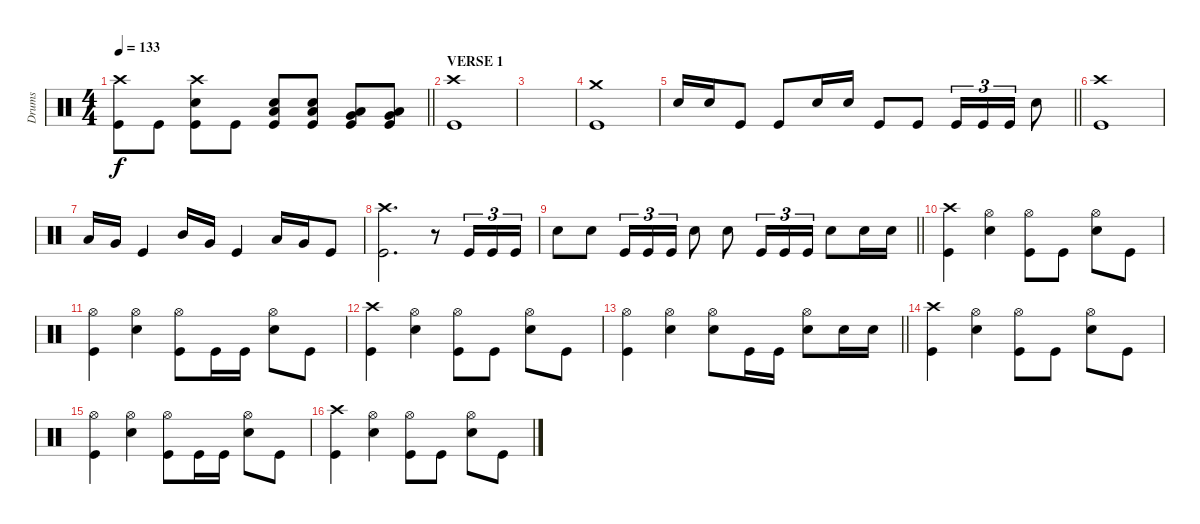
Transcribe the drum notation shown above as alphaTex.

\track ("Drums" "Drums") {instrument percussion}
\staff
\articulation defaults
\ts (4 4)
\tempo 133
\clef neutral
\barLineRight lightlight
\ks c
("Crash high (hit)" "Kick (hit)").8{dy f} "Kick (hit)".8 ("Crash high (hit)" "Electric Snare (hit)" "Kick (hit)").8 "Kick (hit)".8 ("Low Floor Tom (hit)" "Electric Snare (hit)" "Kick (hit)").8 ("Low Floor Tom (hit)" "Electric Snare (hit)" "Kick (hit)").8 ("Very Low Tom (hit)" "Low Floor Tom (hit)" "Kick (hit)").8 ("Very Low Tom (hit)" "Low Floor Tom (hit)" "Kick (hit)").8 |
\section ("" "VERSE 1")
("Crash high (hit)" "Kick (hit)").1 |
|
("Crash medium (hit)" "Kick (hit)").1 |
\barLineRight lightlight "Electric Snare (hit)".16 "Electric Snare (hit)".16 "Kick (hit)".8 "Kick (hit)".8 "Electric Snare (hit)".16 "Electric Snare (hit)".16 "Kick (hit)".8 "Kick (hit)".8 "Kick (hit)".16{tu (3 2)} "Kick (hit)".16{tu (3 2)} "Kick (hit)".16{tu (3 2)} "Electric Snare (hit)".8
|
("Crash high (hit)" "Kick (hit)").1 |
"Low Tom (hit)".16 "Very Low Tom (hit)".16 "Kick (hit)".4 "Mid Tom (hit)".16 "Very Low Tom (hit)".16 "Kick (hit)".4 "Low Tom (hit)".16 "Very Low Tom (hit)".16 "Kick (hit)".8 |
("Crash high (hit)" "Kick (hit)").2{d} r.8 "Kick (hit)".16{tu (3 2)} "Kick (hit)".16{tu (3 2)} "Kick (hit)".16{tu (3 2)} |
\barLineRight lightlight "Electric Snare (hit)".8 "Electric Snare (hit)".8 "Kick (hit)".16{tu (3 2)} "Kick (hit)".16{tu (3 2)} "Kick (hit)".16{tu (3 2)} "Electric Snare (hit)".8 "Electric Snare (hit)".8 "Kick (hit)".16{tu (3 2)} "Kick (hit)".16{tu (3 2)} "Kick (hit)".16{tu (3 2)} "Electric Snare (hit)".8 "Electric Snare (hit)".16 "Electric Snare (hit)".16
|
\section ("" "")
("Crash high (hit)" "Kick (hit)").4 ("Hi-Hat (open)" "Electric Snare (hit)").4 ("Hi-Hat (open)" "Kick (hit)").8 "Kick (hit)".8 ("Hi-Hat (open)" "Electric Snare (hit)").8 "Kick (hit)".8 |
("Hi-Hat (open)" "Kick (hit)").4 ("Hi-Hat (open)" "Electric Snare (hit)").4 ("Hi-Hat (open)" "Kick (hit)").8 "Kick (hit)".16 "Kick (hit)".16 ("Hi-Hat (open)" "Electric Snare (hit)").8 "Kick (hit)".8 |
("Crash high (hit)" "Kick (hit)").4 ("Hi-Hat (open)" "Electric Snare (hit)").4 ("Hi-Hat (open)" "Kick (hit)").8 "Kick (hit)".8 ("Hi-Hat (open)" "Electric Snare (hit)").8 "Kick (hit)".8 |
\barLineRight lightlight
("Hi-Hat (open)" "Kick (hit)").4 ("Hi-Hat (open)" "Electric Snare (hit)").4 ("Hi-Hat (open)" "Electric Snare (hit)").8 "Kick (hit)".16 "Kick (hit)".16 ("Hi-Hat (open)" "Electric Snare (hit)").8 "Electric Snare (hit)".16 "Electric Snare (hit)".16 |
("Crash high (hit)" "Kick (hit)").4 ("Hi-Hat (open)" "Electric Snare (hit)").4 ("Hi-Hat (open)" "Kick (hit)").8 "Kick (hit)".8 ("Hi-Hat (open)" "Electric Snare (hit)").8 "Kick (hit)".8 |
("Hi-Hat (open)" "Kick (hit)").4 ("Hi-Hat (open)" "Electric Snare (hit)").4 ("Hi-Hat (open)" "Kick (hit)").8 "Kick (hit)".16 "Kick (hit)".16 ("Hi-Hat (open)" "Electric Snare (hit)").8 "Kick (hit)".8 |
("Crash high (hit)" "Kick (hit)").4 ("Hi-Hat (open)" "Electric Snare (hit)").4 ("Hi-Hat (open)" "Kick (hit)").8 "Kick (hit)".8 ("Hi-Hat (open)" "Electric Snare (hit)").8 "Kick (hit)".8
